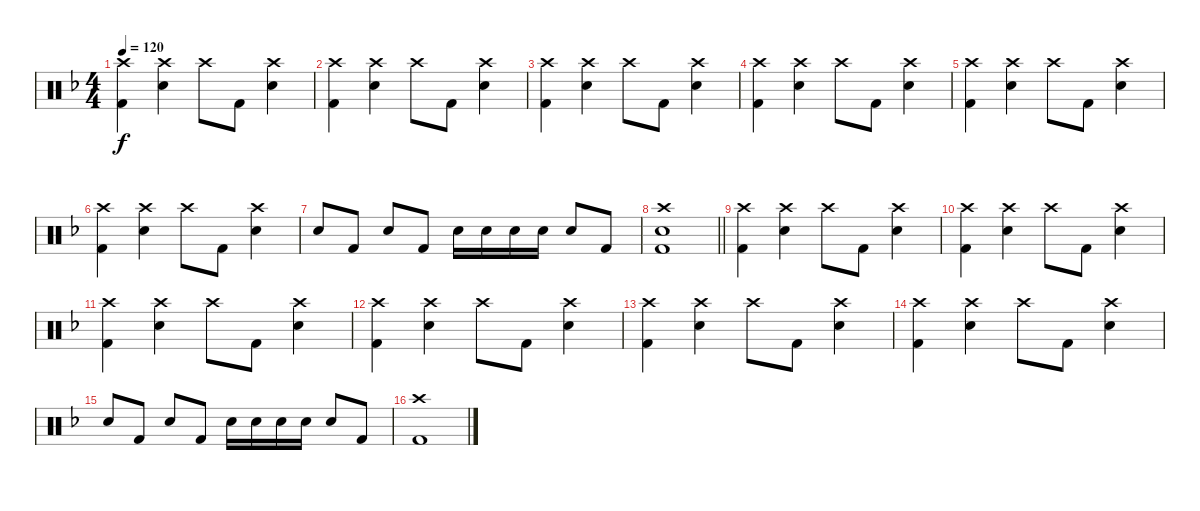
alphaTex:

\track "" {mute instrument percussion}
\staff {score}
\articulation defaults
\ts (4 4)
\tempo 120
\clef neutral
\ks f
("Kick (hit) 2" "Crash high (hit)").4{dy f} ("Snare (hit) 2" "Crash high (hit)").4 "Crash high (hit)".8 "Kick (hit) 2".8 ("Snare (hit) 2" "Crash high (hit)").4 |
("Kick (hit) 2" "Crash high (hit)").4 ("Snare (hit) 2" "Crash high (hit)").4 "Crash high (hit)".8 "Kick (hit) 2".8 ("Snare (hit) 2" "Crash high (hit)").4 |
("Kick (hit) 2" "Crash high (hit)").4 ("Snare (hit) 2" "Crash high (hit)").4 "Crash high (hit)".8 "Kick (hit) 2".8 ("Snare (hit) 2" "Crash high (hit)").4 |
("Kick (hit) 2" "Crash high (hit)").4 ("Snare (hit) 2" "Crash high (hit)").4 "Crash high (hit)".8 "Kick (hit) 2".8 ("Snare (hit) 2" "Crash high (hit)").4 |
("Kick (hit) 2" "Crash high (hit)").4 ("Snare (hit) 2" "Crash high (hit)").4 "Crash high (hit)".8 "Kick (hit) 2".8 ("Snare (hit) 2" "Crash high (hit)").4 |
("Kick (hit) 2" "Crash high (hit)").4 ("Snare (hit) 2" "Crash high (hit)").4 "Crash high (hit)".8 "Kick (hit) 2".8 ("Snare (hit) 2" "Crash high (hit)").4 |
"Snare (hit) 2".8 "Kick (hit) 2".8 "Snare (hit) 2".8 "Kick (hit) 2".8 "Snare (hit) 2".16 "Snare (hit) 2".16 "Snare (hit) 2".16 "Snare (hit) 2".16 "Snare (hit) 2".8 "Kick (hit) 2".8 |
\barLineRight lightlight
("Kick (hit) 2" "Snare (hit) 2" "Crash high (hit)").1 |
("Kick (hit) 2" "Crash high (hit)").4 ("Snare (hit) 2" "Crash high (hit)").4 "Crash high (hit)".8 "Kick (hit) 2".8 ("Snare (hit) 2" "Crash high (hit)").4 |
("Kick (hit) 2" "Crash high (hit)").4 ("Snare (hit) 2" "Crash high (hit)").4 "Crash high (hit)".8 "Kick (hit) 2".8 ("Snare (hit) 2" "Crash high (hit)").4 |
("Kick (hit) 2" "Crash high (hit)").4 ("Snare (hit) 2" "Crash high (hit)").4 "Crash high (hit)".8 "Kick (hit) 2".8 ("Snare (hit) 2" "Crash high (hit)").4 |
("Kick (hit) 2" "Crash high (hit)").4 ("Snare (hit) 2" "Crash high (hit)").4 "Crash high (hit)".8 "Kick (hit) 2".8 ("Snare (hit) 2" "Crash high (hit)").4 |
("Kick (hit) 2" "Crash high (hit)").4 ("Snare (hit) 2" "Crash high (hit)").4 "Crash high (hit)".8 "Kick (hit) 2".8 ("Snare (hit) 2" "Crash high (hit)").4 |
("Kick (hit) 2" "Crash high (hit)").4 ("Snare (hit) 2" "Crash high (hit)").4 "Crash high (hit)".8 "Kick (hit) 2".8 ("Snare (hit) 2" "Crash high (hit)").4 |
"Snare (hit) 2".8 "Kick (hit) 2".8 "Snare (hit) 2".8 "Kick (hit) 2".8 "Snare (hit) 2".16 "Snare (hit) 2".16 "Snare (hit) 2".16 "Snare (hit) 2".16 "Snare (hit) 2".8 "Kick (hit) 2".8 |
("Kick (hit) 2" "Crash high (hit)").1
